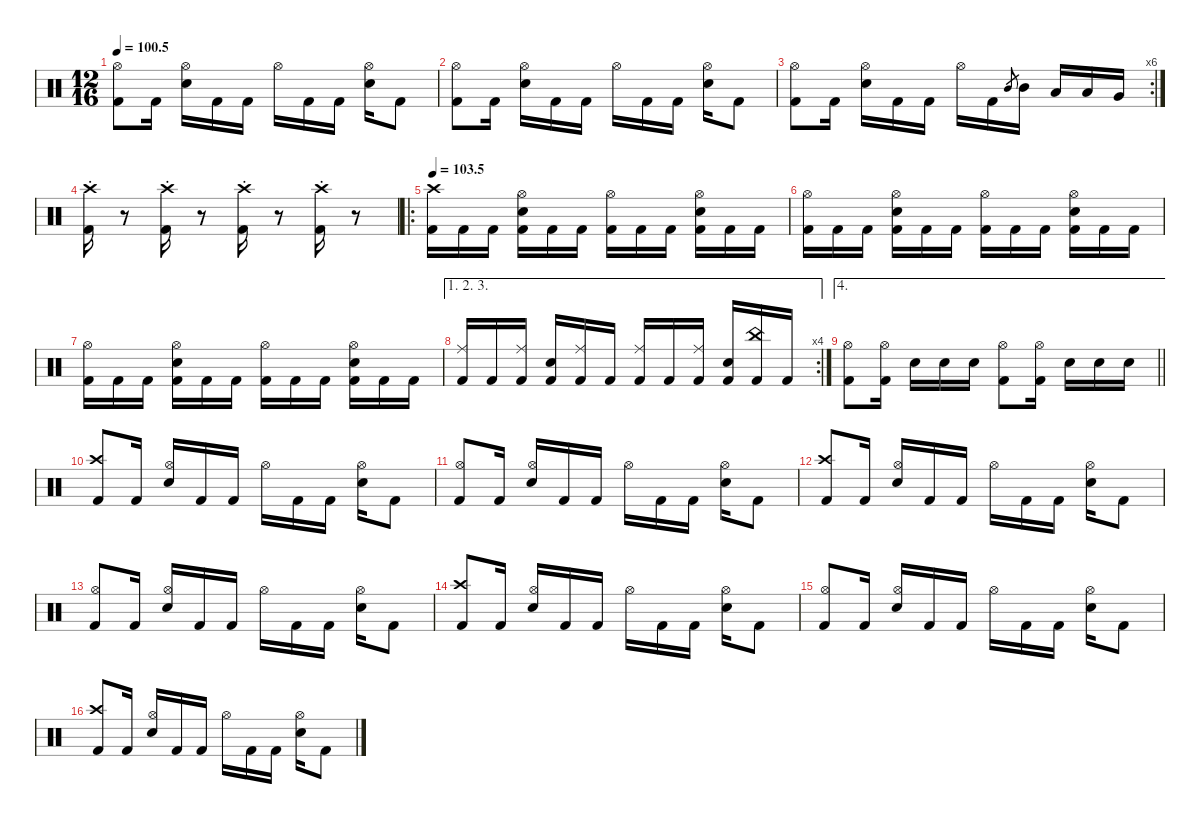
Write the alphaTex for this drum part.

\defaultSystemsLayout 4
\hideDynamics
\bracketExtendMode nobrackets
\singleTrackTrackNamePolicy hidden
\multiTrackTrackNamePolicy hidden
\firstSystemTrackNameMode fullname
\firstSystemTrackNameOrientation horizontal
\otherSystemsTrackNameOrientation horizontal
\track ("Drums" "drm.") {instrument percussion}
\staff {score}
\articulation defaults
\ts (12 16)
\tempo
100.5
\accidentals auto
\clef neutral
\ottava regular
\simile none
\ks c
("Hi-Hat (open)" "Kick (hit) 2").8{dy f beam Down} "Kick (hit) 2".16{dy ff beam Down beam split} ("Hi-Hat (open)" "Snare (hit) 2").16{dy f beam Down} "Kick (hit) 2".16{dy ff beam Down} "Kick (hit) 2".16{beam Down} "Hi-Hat (open)".16{dy f beam Down} "Kick (hit) 2".16{dy ff beam Down} "Kick (hit) 2".16{beam Down beam split} ("Hi-Hat (open)" "Snare (hit) 2").16{dy f beam Down} "Kick (hit) 2".8{dy ff beam Down} |
("Hi-Hat (open)" "Kick (hit) 2").8{dy f beam Down} "Kick (hit) 2".16{dy ff beam Down beam split} ("Hi-Hat (open)" "Snare (hit) 2").16{dy f beam Down} "Kick (hit) 2".16{dy ff beam Down} "Kick (hit) 2".16{beam Down} "Hi-Hat (open)".16{dy f beam Down} "Kick (hit) 2".16{dy ff beam Down} "Kick (hit) 2".16{beam Down beam split} ("Hi-Hat (open)" "Snare (hit) 2").16{dy f beam Down} "Kick (hit) 2".8{dy ff beam Down} |
\rc 6
("Hi-Hat (open)" "Kick (hit) 2").8{dy f beam Down} "Kick (hit) 2".16{dy ff beam Down beam split} ("Hi-Hat (open)" "Snare (hit) 2").16{dy f beam Down} "Kick (hit) 2".16{dy ff beam Down} "Kick (hit) 2".16{beam Down} "Hi-Hat (open)".16{dy f beam Down} "Kick (hit) 2".16{dy ff beam Down} "Mid Tom (hit)".8{gr dy mf beam Up} "Mid Tom (hit)".16{dy ff beam Down beam split} "Low Tom (hit)".16{beam Up} "Low Tom (hit)".16{dy f beam Up} "Very Low Tom (hit)".16{dy ff beam Up} |
("Crash high (hit)"{st} "Kick (hit) 2").16{dy f beam Down} r.8{beam Down} ("Crash high (hit)"{st} "Kick (hit) 2").16{beam Down} r.8{beam Down} ("Crash high (hit)"{st} "Kick (hit) 2").16{beam Down} r.8{beam Down} ("Crash high (hit)"{st} "Kick (hit) 2").16{beam Down} r.8{beam Down} |
\ro
\tempo
103.5 ("Crash high (hit)" "Kick (hit) 2").16{beam Down} "Kick (hit) 2".16{beam Down} "Kick (hit) 2".16{beam Down} ("Hi-Hat (open)" "Snare (hit) 2" "Kick (hit) 2").16{beam Down} "Kick (hit) 2".16{beam Down} "Kick (hit) 2".16{beam Down} ("Hi-Hat (open)" "Kick (hit) 2").16{beam Down} "Kick (hit) 2".16{beam Down} "Kick (hit) 2".16{beam Down} ("Hi-Hat (open)" "Snare (hit) 2" "Kick (hit) 2").16{beam Down} "Kick (hit) 2".16{beam Down} "Kick (hit) 2".16{beam Down} |
("Hi-Hat (open)" "Kick (hit) 2").16{beam Down} "Kick (hit) 2".16{beam Down} "Kick (hit) 2".16{beam Down} ("Hi-Hat (open)" "Snare (hit) 2" "Kick (hit) 2").16{beam Down} "Kick (hit) 2".16{beam Down} "Kick (hit) 2".16{beam Down} ("Hi-Hat (open)" "Kick (hit) 2").16{beam Down} "Kick (hit) 2".16{beam Down} "Kick (hit) 2".16{beam Down} ("Hi-Hat (open)" "Snare (hit) 2" "Kick (hit) 2").16{beam Down} "Kick (hit) 2".16{beam Down} "Kick (hit) 2".16{beam Down} |
("Hi-Hat (open)" "Kick (hit) 2").16{beam Down} "Kick (hit) 2".16{beam Down} "Kick (hit) 2".16{beam Down} ("Hi-Hat (open)" "Snare (hit) 2" "Kick (hit) 2").16{beam Down} "Kick (hit) 2".16{beam Down} "Kick (hit) 2".16{beam Down} ("Hi-Hat (open)" "Kick (hit) 2").16{beam Down} "Kick (hit) 2".16{beam Down} "Kick (hit) 2".16{beam Down} ("Hi-Hat (open)" "Snare (hit) 2" "Kick (hit) 2").16{beam Down} "Kick (hit) 2".16{beam Down} "Kick (hit) 2".16{beam Down} |
\ae (1 2 3)
\rc 4
("Ride (middle)" "Kick (hit) 2").16{beam Up} "Kick (hit) 2".16{beam Up} ("Ride (middle)" "Kick (hit) 2").16{beam Up} ("Snare (hit) 2" "Kick (hit) 2").16{beam Up} ("Ride (middle)" "Kick (hit) 2").16{beam Up} "Kick (hit) 2".16{beam Up} ("Ride (middle)" "Kick (hit) 2").16{beam Up} "Kick (hit) 2".16{beam Up} ("Ride (middle)" "Kick (hit) 2").16{beam Up} ("Snare (hit) 2" "Kick (hit) 2").16{beam Up} ("China (hit)" "Kick (hit) 2").16{beam Up} "Kick (hit) 2".16{beam Up} |
\ae 4
\barLineRight lightlight
("Hi-Hat (open)" "Kick (hit) 2").8{beam Down} ("Hi-Hat (open)" "Kick (hit) 2").16{beam Down} "Snare (hit) 2".16{beam Down} "Snare (hit) 2".16{beam Down} "Snare (hit) 2".16{beam Down} ("Hi-Hat (open)" "Kick (hit) 2").8{beam Down} ("Hi-Hat (open)" "Kick (hit) 2").16{beam Down} "Snare (hit) 2".16{beam Down} "Snare (hit) 2".16{beam Down} "Snare (hit) 2".16{beam Down} |
("Crash high (hit)" "Kick (hit) 2").8{beam Up} "Kick (hit) 2".16{dy ff beam Up} ("Hi-Hat (open)" "Snare (hit) 2").16{dy f beam Up} "Kick (hit) 2".16{dy ff beam Up} "Kick (hit) 2".16{beam Up} "Hi-Hat (open)".16{dy f beam Down} "Kick (hit) 2".16{dy ff beam Down} "Kick (hit) 2".16{beam Down} ("Hi-Hat (open)" "Snare (hit) 2").16{dy f beam Down} "Kick (hit) 2".8{dy ff beam Down} |
("Hi-Hat (open)" "Kick (hit) 2").8{dy f beam Up} "Kick (hit) 2".16{dy ff beam Up} ("Hi-Hat (open)" "Snare (hit) 2").16{dy f beam Up} "Kick (hit) 2".16{dy ff beam Up} "Kick (hit) 2".16{beam Up} "Hi-Hat (open)".16{dy f beam Down} "Kick (hit) 2".16{dy ff beam Down} "Kick (hit) 2".16{beam Down} ("Hi-Hat (open)" "Snare (hit) 2").16{dy f beam Down} "Kick (hit) 2".8{dy ff beam Down} |
("Crash high (hit)" "Kick (hit) 2").8{dy f beam Up} "Kick (hit) 2".16{dy ff beam Up} ("Hi-Hat (open)" "Snare (hit) 2").16{dy f beam Up} "Kick (hit) 2".16{dy ff beam Up} "Kick (hit) 2".16{beam Up} "Hi-Hat (open)".16{dy f beam Down} "Kick (hit) 2".16{dy ff beam Down} "Kick (hit) 2".16{beam Down} ("Hi-Hat (open)" "Snare (hit) 2").16{dy f beam Down} "Kick (hit) 2".8{dy ff beam Down} |
("Hi-Hat (open)" "Kick (hit) 2").8{dy f beam Up} "Kick (hit) 2".16{dy ff beam Up} ("Hi-Hat (open)" "Snare (hit) 2").16{dy f beam Up} "Kick (hit) 2".16{dy ff beam Up} "Kick (hit) 2".16{beam Up} "Hi-Hat (open)".16{dy f beam Down} "Kick (hit) 2".16{dy ff beam Down} "Kick (hit) 2".16{beam Down} ("Hi-Hat (open)" "Snare (hit) 2").16{dy f beam Down} "Kick (hit) 2".8{dy ff beam Down} |
("Crash high (hit)" "Kick (hit) 2").8{dy f beam Up} "Kick (hit) 2".16{dy ff beam Up} ("Hi-Hat (open)" "Snare (hit) 2").16{dy f beam Up} "Kick (hit) 2".16{dy ff beam Up} "Kick (hit) 2".16{beam Up} "Hi-Hat (open)".16{dy f beam Down} "Kick (hit) 2".16{dy ff beam Down} "Kick (hit) 2".16{beam Down} ("Hi-Hat (open)" "Snare (hit) 2").16{dy f beam Down} "Kick (hit) 2".8{dy ff beam Down} |
("Hi-Hat (open)" "Kick (hit) 2").8{dy f beam Up} "Kick (hit) 2".16{dy ff beam Up} ("Hi-Hat (open)" "Snare (hit) 2").16{dy f beam Up} "Kick (hit) 2".16{dy ff beam Up} "Kick (hit) 2".16{beam Up} "Hi-Hat (open)".16{dy f beam Down} "Kick (hit) 2".16{dy ff beam Down} "Kick (hit) 2".16{beam Down} ("Hi-Hat (open)" "Snare (hit) 2").16{dy f beam Down} "Kick (hit) 2".8{dy ff beam Down} |
("Crash high (hit)" "Kick (hit) 2").8{dy f beam Up} "Kick (hit) 2".16{dy ff beam Up} ("Hi-Hat (open)" "Snare (hit) 2").16{dy f beam Up} "Kick (hit) 2".16{dy ff beam Up} "Kick (hit) 2".16{beam Up} "Hi-Hat (open)".16{dy f beam Down} "Kick (hit) 2".16{dy ff beam Down} "Kick (hit) 2".16{beam Down} ("Hi-Hat (open)" "Snare (hit) 2").16{dy f beam Down} "Kick (hit) 2".8{dy ff beam Down}
